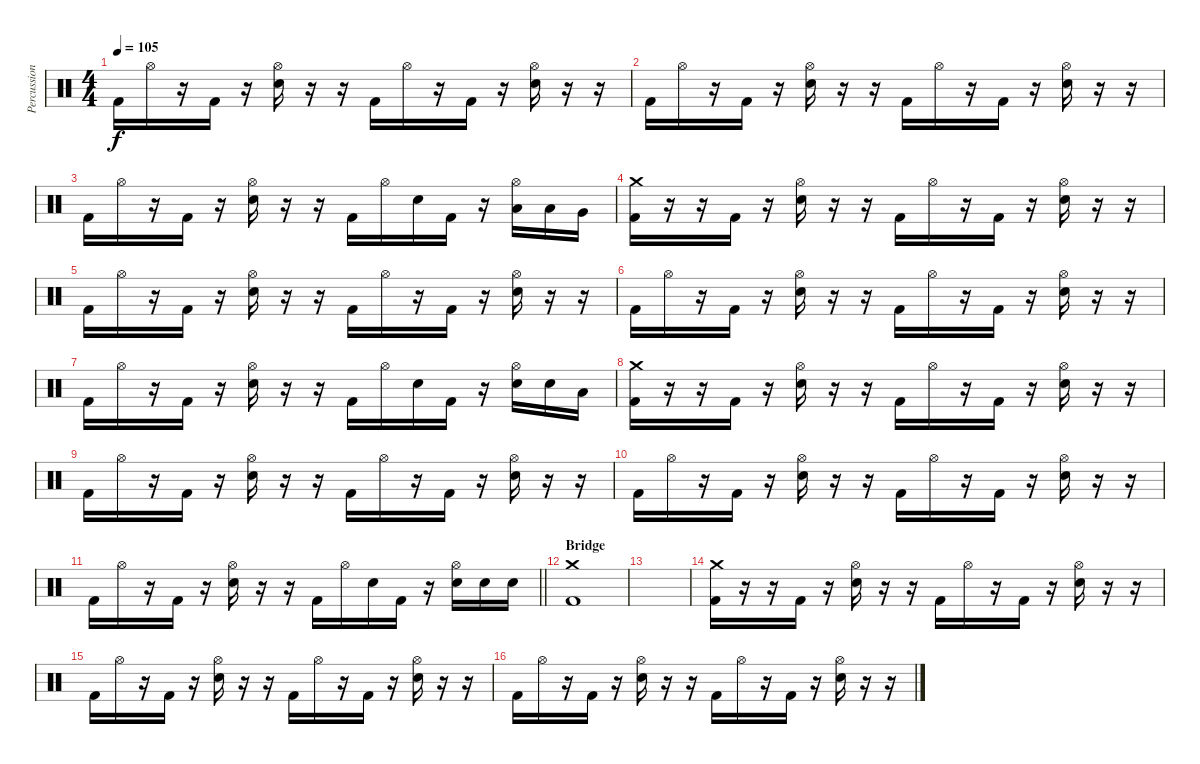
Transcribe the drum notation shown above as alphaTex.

\track ("Percussion" "Percussion") {instrument percussion}
\staff {score}
\articulation defaults
\ts (4 4)
\tempo 105
\clef neutral
\ks c "Kick (hit) 2".16{dy f} "Hi-Hat (open)".16
r.16 "Kick (hit) 2".16 r.16 ("Hi-Hat (open)" "Electric Snare (hit)").16 r.16 r.16 "Kick (hit) 2".16 "Hi-Hat (open)".16 r.16 "Kick (hit) 2".16 r.16 ("Hi-Hat (open)" "Electric Snare (hit)").16 r.16 r.16 |
"Kick (hit) 2".16 "Hi-Hat (open)".16 r.16 "Kick (hit) 2".16 r.16 ("Hi-Hat (open)" "Electric Snare (hit)").16 r.16 r.16 "Kick (hit) 2".16 "Hi-Hat (open)".16 r.16 "Kick (hit) 2".16 r.16 ("Hi-Hat (open)" "Electric Snare (hit)").16 r.16 r.16 |
"Kick (hit) 2".16 "Hi-Hat (open)".16 r.16 "Kick (hit) 2".16 r.16 ("Hi-Hat (open)" "Electric Snare (hit)").16 r.16 r.16 "Kick (hit) 2".16 "Hi-Hat (open)".16 "Electric Snare (hit)".16 "Kick (hit) 2".16 r.16 ("Hi-Hat (open)" "Low Tom (hit)").16 "Low Tom (hit)".16 "Very Low Tom (hit)".16 |
("Crash medium (hit)" "Kick (hit) 2").16 r.16 r.16 "Kick (hit) 2".16 r.16 ("Hi-Hat (open)" "Electric Snare (hit)").16 r.16 r.16 "Kick (hit) 2".16 "Hi-Hat (open)".16 r.16 "Kick (hit) 2".16 r.16 ("Hi-Hat (open)" "Electric Snare (hit)").16 r.16 r.16 |
"Kick (hit) 2".16 "Hi-Hat (open)".16 r.16 "Kick (hit) 2".16 r.16 ("Hi-Hat (open)" "Electric Snare (hit)").16 r.16 r.16 "Kick (hit) 2".16 "Hi-Hat (open)".16 r.16 "Kick (hit) 2".16 r.16 ("Hi-Hat (open)" "Electric Snare (hit)").16 r.16 r.16 |
"Kick (hit) 2".16 "Hi-Hat (open)".16 r.16 "Kick (hit) 2".16 r.16 ("Hi-Hat (open)" "Electric Snare (hit)").16 r.16 r.16 "Kick (hit) 2".16 "Hi-Hat (open)".16 r.16 "Kick (hit) 2".16 r.16 ("Hi-Hat (open)" "Electric Snare (hit)").16 r.16 r.16 |
"Kick (hit) 2".16 "Hi-Hat (open)".16 r.16 "Kick (hit) 2".16 r.16 ("Hi-Hat (open)" "Electric Snare (hit)").16 r.16 r.16 "Kick (hit) 2".16 "Hi-Hat (open)".16 "Electric Snare (hit)".16 "Kick (hit) 2".16 r.16 ("Hi-Hat (open)" "Electric Snare (hit)").16 "Electric Snare (hit)".16 "Low Tom (hit)".16 |
("Crash medium (hit)" "Kick (hit) 2").16 r.16 r.16 "Kick (hit) 2".16 r.16 ("Hi-Hat (open)" "Electric Snare (hit)").16 r.16 r.16 "Kick (hit) 2".16 "Hi-Hat (open)".16 r.16 "Kick (hit) 2".16 r.16 ("Hi-Hat (open)" "Electric Snare (hit)").16 r.16 r.16 |
"Kick (hit) 2".16 "Hi-Hat (open)".16 r.16 "Kick (hit) 2".16 r.16 ("Hi-Hat (open)" "Electric Snare (hit)").16 r.16 r.16 "Kick (hit) 2".16 "Hi-Hat (open)".16 r.16 "Kick (hit) 2".16 r.16 ("Hi-Hat (open)" "Electric Snare (hit)").16 r.16 r.16 |
"Kick (hit) 2".16 "Hi-Hat (open)".16 r.16 "Kick (hit) 2".16 r.16 ("Hi-Hat (open)" "Electric Snare (hit)").16 r.16 r.16 "Kick (hit) 2".16 "Hi-Hat (open)".16 r.16 "Kick (hit) 2".16 r.16 ("Hi-Hat (open)" "Electric Snare (hit)").16 r.16 r.16 |
\barLineRight lightlight "Kick (hit) 2".16 "Hi-Hat (open)".16
r.16 "Kick (hit) 2".16 r.16 ("Hi-Hat (open)" "Electric Snare (hit)").16 r.16 r.16 "Kick (hit) 2".16 "Hi-Hat (open)".16 "Electric Snare (hit)".16 "Kick (hit) 2".16 r.16 ("Hi-Hat (open)" "Electric Snare (hit)").16 "Electric Snare (hit)".16 "Electric Snare (hit)".16 |
\section ("" "Bridge")
("Crash medium (hit)" "Kick (hit) 2").1 |
|
("Crash medium (hit)" "Kick (hit) 2").16 r.16 r.16 "Kick (hit) 2".16 r.16 ("Hi-Hat (open)" "Electric Snare (hit)").16 r.16 r.16 "Kick (hit) 2".16 "Hi-Hat (open)".16 r.16 "Kick (hit) 2".16 r.16 ("Hi-Hat (open)" "Electric Snare (hit)").16 r.16 r.16 |
"Kick (hit) 2".16 "Hi-Hat (open)".16 r.16 "Kick (hit) 2".16 r.16 ("Hi-Hat (open)" "Electric Snare (hit)").16 r.16 r.16 "Kick (hit) 2".16 "Hi-Hat (open)".16 r.16 "Kick (hit) 2".16 r.16 ("Hi-Hat (open)" "Electric Snare (hit)").16 r.16 r.16 |
"Kick (hit) 2".16 "Hi-Hat (open)".16 r.16 "Kick (hit) 2".16 r.16 ("Hi-Hat (open)" "Electric Snare (hit)").16 r.16 r.16 "Kick (hit) 2".16 "Hi-Hat (open)".16 r.16 "Kick (hit) 2".16 r.16 ("Hi-Hat (open)" "Electric Snare (hit)").16 r.16 r.16
